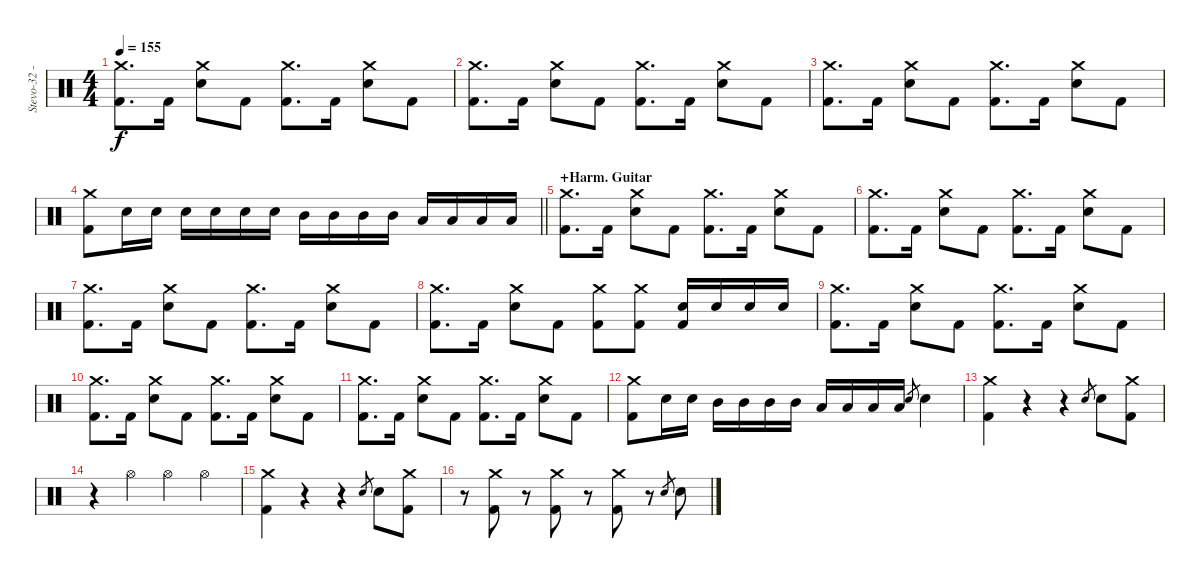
\track ("Stevo-32 - Drums" "Stevo-32 -") {instrument percussion}
\staff {score}
\articulation defaults
\ts (4 4)
\tempo 155
\clef neutral
\ks c
("Crash medium (hit)" "Kick (hit) 2").8{d dy f} "Kick (hit) 2".16 ("Crash medium (hit)" "Electric Snare (hit)").8 "Kick (hit) 2".8 ("Crash medium (hit)" "Kick (hit) 2").8{d} "Kick (hit) 2".16 ("Crash medium (hit)" "Electric Snare (hit)").8 "Kick (hit) 2".8 |
("Crash medium (hit)" "Kick (hit) 2").8{d} "Kick (hit) 2".16 ("Crash medium (hit)" "Electric Snare (hit)").8 "Kick (hit) 2".8 ("Crash medium (hit)" "Kick (hit) 2").8{d} "Kick (hit) 2".16 ("Crash medium (hit)" "Electric Snare (hit)").8 "Kick (hit) 2".8 |
("Crash medium (hit)" "Kick (hit) 2").8{d} "Kick (hit) 2".16 ("Crash medium (hit)" "Electric Snare (hit)").8 "Kick (hit) 2".8 ("Crash medium (hit)" "Kick (hit) 2").8{d} "Kick (hit) 2".16 ("Crash medium (hit)" "Electric Snare (hit)").8 "Kick (hit) 2".8 |
\barLineRight lightlight
("Crash medium (hit)" "Kick (hit) 2").8 "Electric Snare (hit)".16 "Electric Snare (hit)".16 "Electric Snare (hit)".16 "Electric Snare (hit)".16 "Electric Snare (hit)".16 "Electric Snare (hit)".16 "Mid Tom (hit)".16 "Mid Tom (hit)".16 "Mid Tom (hit)".16 "Mid Tom (hit)".16 "Low Tom (hit)".16 "Low Tom (hit)".16 "Low Floor Tom (hit)".16 "Low Floor Tom (hit)".16 |
\section ("" "+Harm. Guitar")
("Crash medium (hit)" "Kick (hit) 2").8{d} "Kick (hit) 2".16 ("Crash medium (hit)" "Electric Snare (hit)").8 "Kick (hit) 2".8 ("Crash medium (hit)" "Kick (hit) 2").8{d} "Kick (hit) 2".16 ("Crash medium (hit)" "Electric Snare (hit)").8 "Kick (hit) 2".8 |
("Crash medium (hit)" "Kick (hit) 2").8{d} "Kick (hit) 2".16 ("Crash medium (hit)" "Electric Snare (hit)").8 "Kick (hit) 2".8 ("Crash medium (hit)" "Kick (hit) 2").8{d} "Kick (hit) 2".16 ("Crash medium (hit)" "Electric Snare (hit)").8 "Kick (hit) 2".8 |
("Crash medium (hit)" "Kick (hit) 2").8{d} "Kick (hit) 2".16 ("Crash medium (hit)" "Electric Snare (hit)").8 "Kick (hit) 2".8 ("Crash medium (hit)" "Kick (hit) 2").8{d} "Kick (hit) 2".16 ("Crash medium (hit)" "Electric Snare (hit)").8 "Kick (hit) 2".8 |
("Crash medium (hit)" "Kick (hit) 2").8{d} "Kick (hit) 2".16 ("Crash medium (hit)" "Electric Snare (hit)").8 "Kick (hit) 2".8 ("Crash medium (hit)" "Kick (hit) 2").8 ("Crash medium (hit)" "Kick (hit) 2").8 ("Electric Snare (hit)" "Kick (hit) 2").16 "Electric Snare (hit)".16 "Electric Snare (hit)".16 "Electric Snare (hit)".16 |
("Crash medium (hit)" "Kick (hit) 2").8{d} "Kick (hit) 2".16 ("Crash medium (hit)" "Electric Snare (hit)").8 "Kick (hit) 2".8 ("Crash medium (hit)" "Kick (hit) 2").8{d} "Kick (hit) 2".16 ("Crash medium (hit)" "Electric Snare (hit)").8 "Kick (hit) 2".8 |
("Crash medium (hit)" "Kick (hit) 2").8{d} "Kick (hit) 2".16 ("Crash medium (hit)" "Electric Snare (hit)").8 "Kick (hit) 2".8 ("Crash medium (hit)" "Kick (hit) 2").8{d} "Kick (hit) 2".16 ("Crash medium (hit)" "Electric Snare (hit)").8 "Kick (hit) 2".8 |
("Crash medium (hit)" "Kick (hit) 2").8{d} "Kick (hit) 2".16 ("Crash medium (hit)" "Electric Snare (hit)").8 "Kick (hit) 2".8 ("Crash medium (hit)" "Kick (hit) 2").8{d} "Kick (hit) 2".16 ("Crash medium (hit)" "Electric Snare (hit)").8 "Kick (hit) 2".8 |
("Crash medium (hit)" "Kick (hit) 2").8 "Electric Snare (hit)".16 "Electric Snare (hit)".16 "Mid Tom (hit)".16 "Mid Tom (hit)".16 "Mid Tom (hit)".16 "Mid Tom (hit)".16 "Low Tom (hit)".16 "Low Tom (hit)".16 "Low Floor Tom (hit)".16 "Low Floor Tom (hit)".16 "Electric Snare (hit)".8{gr} "Electric Snare (hit)".4 |
("Crash medium (hit)" "Kick (hit) 2").4 r.4 r.4 "Electric Snare (hit)".8{gr} "Electric Snare (hit)".8 ("Crash medium (hit)" "Kick (hit) 2").8 |
r.4 "Hi-Hat (open)".4 "Hi-Hat (open)".4 "Hi-Hat (open)".4 |
("Crash medium (hit)" "Kick (hit) 2").4 r.4 r.4 "Electric Snare (hit)".8{gr} "Electric Snare (hit)".8 ("Crash medium (hit)" "Kick (hit) 2").8 |
r.8 ("Crash medium (hit)" "Kick (hit) 2").8 r.8 ("Crash medium (hit)" "Kick (hit) 2").8 r.8 ("Crash medium (hit)" "Kick (hit) 2").8 r.8 "Electric Snare (hit)".8{gr} "Electric Snare (hit)".8
